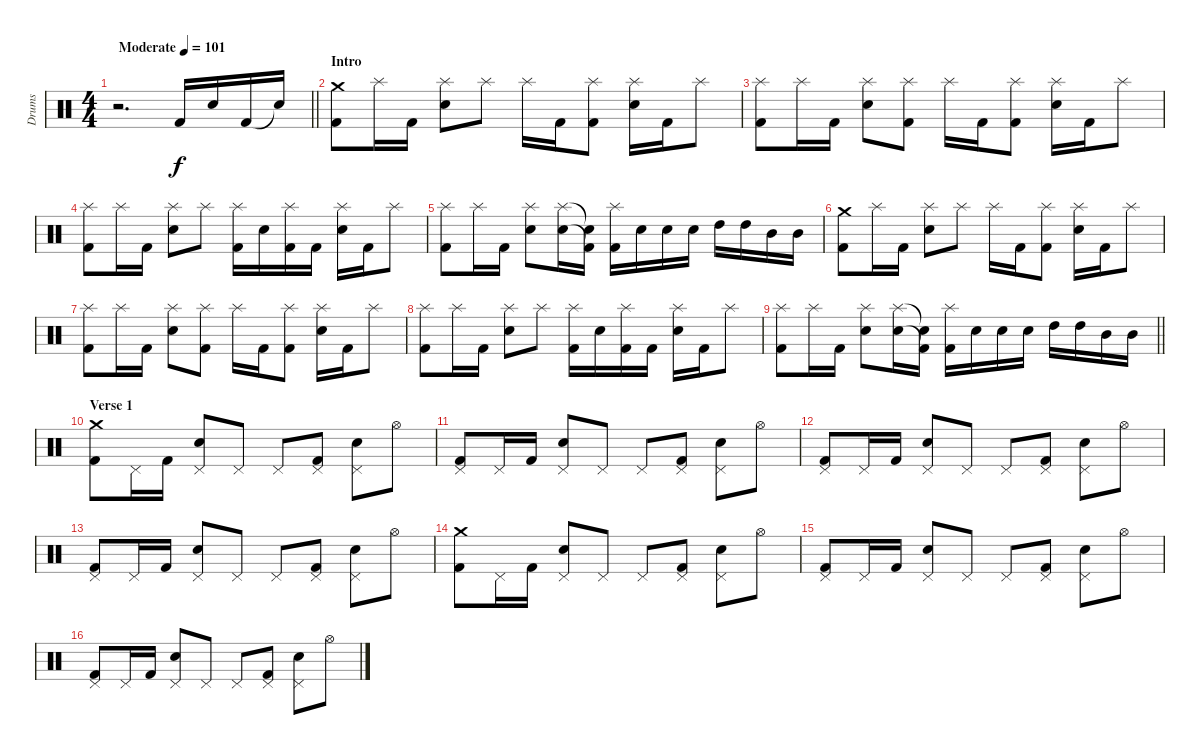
\track ("Drums" "Drums") {instrument percussion}
\staff {score}
\articulation defaults
\ts (4 4)
\tempo (101 "Moderate")
\clef neutral
\barLineRight lightlight
\ks c
r.2{d dy f} "Kick (hit) 2".16 "Electric Snare (hit)".16 "Kick (hit) 2".16 "Snare (hit)"{t}.16 |
\section ("" "Intro")
("Crash medium (hit)" "Kick (hit) 2").8 "Splash (hit)".16 "Kick (hit) 2".16 ("Splash (hit)" "Electric Snare (hit)").8 "Splash (hit)".8 "Splash (hit)".16 "Kick (hit) 2".16 ("Splash (hit)" "Kick (hit) 2").8 ("Splash (hit)" "Electric Snare (hit)").16 "Kick (hit) 2".16 "Splash (hit)".8 |
("Splash (hit)" "Kick (hit) 2").8 "Splash (hit)".16 "Kick (hit) 2".16 ("Splash (hit)" "Electric Snare (hit)").8 ("Splash (hit)" "Kick (hit) 2").8 "Splash (hit)".16 "Kick (hit) 2".16 ("Splash (hit)" "Kick (hit) 2").8 ("Splash (hit)" "Electric Snare (hit)").16 "Kick (hit) 2".16 "Splash (hit)".8 |
("Splash (hit)" "Kick (hit) 2").8 "Splash (hit)".16 "Kick (hit) 2".16 ("Splash (hit)" "Electric Snare (hit)").8 "Splash (hit)".8 ("Splash (hit)" "Kick (hit) 2").16 "Electric Snare (hit)".16 ("Splash (hit)" "Kick (hit) 2").16 "Kick (hit) 2".16 ("Splash (hit)" "Electric Snare (hit)").16 "Kick (hit) 2".16 "Splash (hit)".8 |
("Splash (hit)" "Kick (hit) 2").8 "Splash (hit)".16 "Kick (hit) 2".16 ("Splash (hit)" "Electric Snare (hit)").8 ("Splash (hit)" "Electric Snare (hit)").16 ("Snare (hit)"{t} "Kick (hit) 2"{t}).16 ("Splash (hit)" "Kick (hit) 2").16 "Electric Snare (hit)".16 "Electric Snare (hit)".16 "Electric Snare (hit)".16 "High Tom (hit)".16 "High Tom (hit)".16 "Mid Tom (hit)".16 "Mid Tom (hit)".16 |
("Crash medium (hit)" "Kick (hit) 2").8 "Splash (hit)".16 "Kick (hit) 2".16 ("Splash (hit)" "Electric Snare (hit)").8 "Splash (hit)".8 "Splash (hit)".16 "Kick (hit) 2".16 ("Splash (hit)" "Kick (hit) 2").8 ("Splash (hit)" "Electric Snare (hit)").16 "Kick (hit) 2".16 "Splash (hit)".8 |
("Splash (hit)" "Kick (hit) 2").8 "Splash (hit)".16 "Kick (hit) 2".16 ("Splash (hit)" "Electric Snare (hit)").8 ("Splash (hit)" "Kick (hit) 2").8 "Splash (hit)".16 "Kick (hit) 2".16 ("Splash (hit)" "Kick (hit) 2").8 ("Splash (hit)" "Electric Snare (hit)").16 "Kick (hit) 2".16 "Splash (hit)".8 |
("Splash (hit)" "Kick (hit) 2").8 "Splash (hit)".16 "Kick (hit) 2".16 ("Splash (hit)" "Electric Snare (hit)").8 "Splash (hit)".8 ("Splash (hit)" "Kick (hit) 2").16 "Electric Snare (hit)".16 ("Splash (hit)" "Kick (hit) 2").16 "Kick (hit) 2".16 ("Splash (hit)" "Electric Snare (hit)").16 "Kick (hit) 2".16 "Splash (hit)".8 |
\barLineRight lightlight
("Splash (hit)" "Kick (hit) 2").8 "Splash (hit)".16 "Kick (hit) 2".16 ("Splash (hit)" "Electric Snare (hit)").8 ("Splash (hit)" "Electric Snare (hit)").16 ("Snare (hit)"{t} "Kick (hit) 2"{t}).16 ("Splash (hit)" "Kick (hit) 2").16 "Electric Snare (hit)".16 "Electric Snare (hit)".16 "Electric Snare (hit)".16 "High Tom (hit)".16 "High Tom (hit)".16 "Mid Tom (hit)".16 "Mid Tom (hit)".16 |
\section ("" "Verse 1")
("Crash medium (hit)" "Kick (hit) 2").8 "Pedal Hi-Hat (hit)".16 "Kick (hit) 2".16 ("Pedal Hi-Hat (hit)" "Electric Snare (hit)").8 "Pedal Hi-Hat (hit)".8 "Pedal Hi-Hat (hit)".8 ("Pedal Hi-Hat (hit)" "Kick (hit) 2").8 ("Pedal Hi-Hat (hit)" "Electric Snare (hit)").8 "Hi-Hat (open)".8 |
("Pedal Hi-Hat (hit)" "Kick (hit) 2").8 "Pedal Hi-Hat (hit)".16 "Kick (hit) 2".16 ("Pedal Hi-Hat (hit)" "Electric Snare (hit)").8 "Pedal Hi-Hat (hit)".8 "Pedal Hi-Hat (hit)".8 ("Pedal Hi-Hat (hit)" "Kick (hit) 2").8 ("Pedal Hi-Hat (hit)" "Electric Snare (hit)").8 "Hi-Hat (open)".8 |
("Pedal Hi-Hat (hit)" "Kick (hit) 2").8 "Pedal Hi-Hat (hit)".16 "Kick (hit) 2".16 ("Pedal Hi-Hat (hit)" "Electric Snare (hit)").8 "Pedal Hi-Hat (hit)".8 "Pedal Hi-Hat (hit)".8 ("Pedal Hi-Hat (hit)" "Kick (hit) 2").8 ("Pedal Hi-Hat (hit)" "Electric Snare (hit)").8 "Hi-Hat (open)".8 |
("Pedal Hi-Hat (hit)" "Kick (hit) 2").8 "Pedal Hi-Hat (hit)".16 "Kick (hit) 2".16 ("Pedal Hi-Hat (hit)" "Electric Snare (hit)").8 "Pedal Hi-Hat (hit)".8 "Pedal Hi-Hat (hit)".8 ("Pedal Hi-Hat (hit)" "Kick (hit) 2").8 ("Pedal Hi-Hat (hit)" "Electric Snare (hit)").8 "Hi-Hat (open)".8 |
("Crash medium (hit)" "Kick (hit) 2").8 "Pedal Hi-Hat (hit)".16 "Kick (hit) 2".16 ("Pedal Hi-Hat (hit)" "Electric Snare (hit)").8 "Pedal Hi-Hat (hit)".8 "Pedal Hi-Hat (hit)".8 ("Pedal Hi-Hat (hit)" "Kick (hit) 2").8 ("Pedal Hi-Hat (hit)" "Electric Snare (hit)").8 "Hi-Hat (open)".8 |
("Pedal Hi-Hat (hit)" "Kick (hit) 2").8 "Pedal Hi-Hat (hit)".16 "Kick (hit) 2".16 ("Pedal Hi-Hat (hit)" "Electric Snare (hit)").8 "Pedal Hi-Hat (hit)".8 "Pedal Hi-Hat (hit)".8 ("Pedal Hi-Hat (hit)" "Kick (hit) 2").8 ("Pedal Hi-Hat (hit)" "Electric Snare (hit)").8 "Hi-Hat (open)".8 |
("Pedal Hi-Hat (hit)" "Kick (hit) 2").8 "Pedal Hi-Hat (hit)".16 "Kick (hit) 2".16 ("Pedal Hi-Hat (hit)" "Electric Snare (hit)").8 "Pedal Hi-Hat (hit)".8 "Pedal Hi-Hat (hit)".8 ("Pedal Hi-Hat (hit)" "Kick (hit) 2").8 ("Pedal Hi-Hat (hit)" "Electric Snare (hit)").8 "Hi-Hat (open)".8
